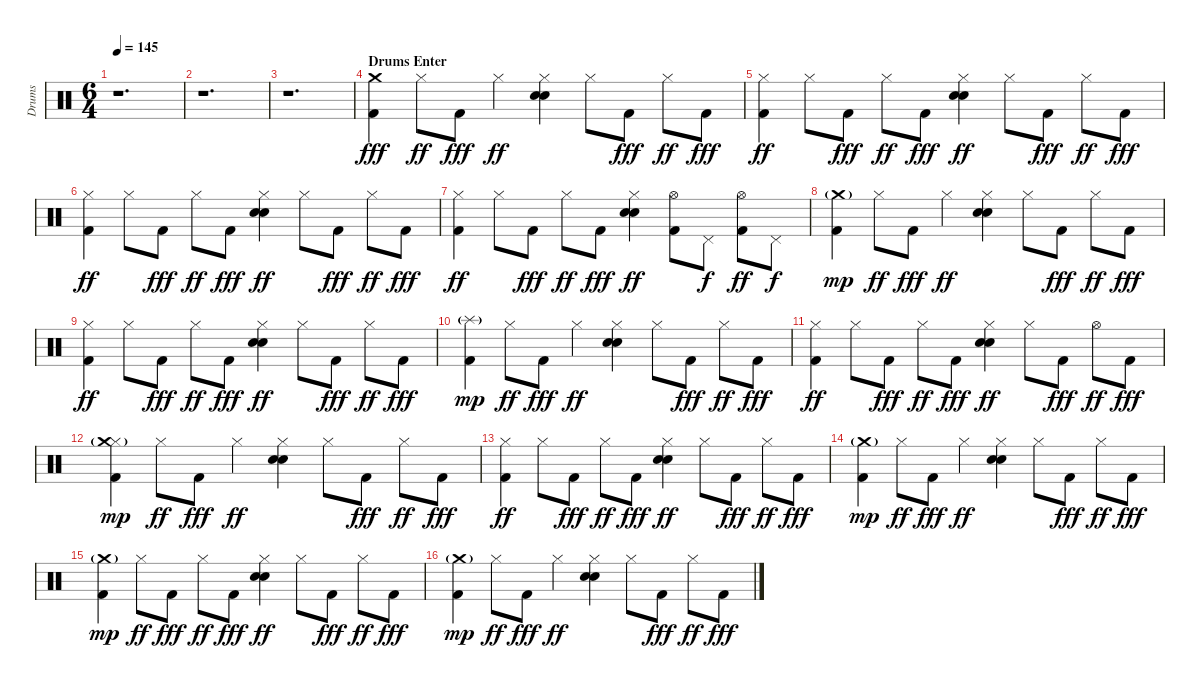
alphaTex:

\track ("Drums" "Drums") {instrument percussion}
\staff {score}
\articulation defaults
\ts (6 4)
\tempo 145
\clef neutral
\ks c
r.1{d dy ff} |
r.1{d} |
r.1{d} |
\section ("" "Drums Enter")
("Kick (hit) 2" "Crash medium (hit)").4{dy fff} "Hi-Hat (closed)".8{dy ff} "Kick (hit) 2".8{dy fff} "Hi-Hat (closed)".4{dy ff} ("Snare (hit) 2" "Snare (hit) 2" "Hi-Hat (closed)").4 "Hi-Hat (closed)".8 "Kick (hit) 2".8{dy fff} "Hi-Hat (closed)".8{dy ff} "Kick (hit) 2".8{dy fff} |
("Kick (hit) 2" "Hi-Hat (closed)").4{dy ff} "Hi-Hat (closed)".8 "Kick (hit) 2".8{dy fff} "Hi-Hat (closed)".8{dy ff} "Kick (hit) 2".8{dy fff} ("Snare (hit) 2" "Snare (hit) 2" "Hi-Hat (closed)").4{dy ff} "Hi-Hat (closed)".8 "Kick (hit) 2".8{dy fff} "Hi-Hat (closed)".8{dy ff} "Kick (hit) 2".8{dy fff} |
("Kick (hit) 2" "Hi-Hat (closed)").4{dy ff} "Hi-Hat (closed)".8 "Kick (hit) 2".8{dy fff} "Hi-Hat (closed)".8{dy ff} "Kick (hit) 2".8{dy fff} ("Snare (hit) 2" "Snare (hit) 2" "Hi-Hat (closed)").4{dy ff} "Hi-Hat (closed)".8 "Kick (hit) 2".8{dy fff} "Hi-Hat (closed)".8{dy ff} "Kick (hit) 2".8{dy fff} |
("Kick (hit) 2" "Hi-Hat (closed)").4{dy ff} "Hi-Hat (closed)".8 "Kick (hit) 2".8{dy fff} "Hi-Hat (closed)".8{dy ff} "Kick (hit) 2".8{dy fff} ("Snare (hit) 2" "Snare (hit) 2" "Hi-Hat (closed)").4{dy ff} ("Kick (hit) 2" "Hi-Hat (open)").8 "Pedal Hi-Hat (hit)".8{dy f} ("Kick (hit) 2" "Hi-Hat (open)").8{dy ff} "Pedal Hi-Hat (hit)".8{dy f} |
("Kick (hit) 2" "Crash medium (hit)"{g}).4{dy mp} "Hi-Hat (closed)".8{dy ff} "Kick (hit) 2".8{dy fff} "Hi-Hat (closed)".4{dy ff} ("Snare (hit) 2" "Snare (hit) 2" "Hi-Hat (closed)").4 "Hi-Hat (closed)".8 "Kick (hit) 2".8{dy fff} "Hi-Hat (closed)".8{dy ff} "Kick (hit) 2".8{dy fff} |
("Kick (hit) 2" "Hi-Hat (closed)").4{dy ff} "Hi-Hat (closed)".8 "Kick (hit) 2".8{dy fff} "Hi-Hat (closed)".8{dy ff} "Kick (hit) 2".8{dy fff} ("Snare (hit) 2" "Snare (hit) 2" "Hi-Hat (closed)").4{dy ff} "Hi-Hat (closed)".8 "Kick (hit) 2".8{dy fff} "Hi-Hat (closed)".8{dy ff} "Kick (hit) 2".8{dy fff} |
("Kick (hit) 2" "Splash (hit)"{g}).4{dy mp} "Hi-Hat (closed)".8{dy ff} "Kick (hit) 2".8{dy fff} "Hi-Hat (closed)".4{dy ff} ("Snare (hit) 2" "Snare (hit) 2" "Hi-Hat (closed)").4 "Hi-Hat (closed)".8 "Kick (hit) 2".8{dy fff} "Hi-Hat (closed)".8{dy ff} "Kick (hit) 2".8{dy fff} |
("Kick (hit) 2" "Hi-Hat (closed)").4{dy ff} "Hi-Hat (closed)".8 "Kick (hit) 2".8{dy fff} "Hi-Hat (closed)".8{dy ff} "Kick (hit) 2".8{dy fff} ("Snare (hit) 2" "Snare (hit) 2" "Hi-Hat (closed)").4{dy ff} "Hi-Hat (closed)".8 "Kick (hit) 2".8{dy fff} "Hi-Hat (open)".8{dy ff} "Kick (hit) 2".8{dy fff} |
("Kick (hit) 2" "Hi-Hat (closed)" "Crash medium (hit)"{g}).4{dy mp} "Hi-Hat (closed)".8{dy ff} "Kick (hit) 2".8{dy fff} "Hi-Hat (closed)".4{dy ff} ("Snare (hit) 2" "Snare (hit) 2" "Hi-Hat (closed)").4 "Hi-Hat (closed)".8 "Kick (hit) 2".8{dy fff} "Hi-Hat (closed)".8{dy ff} "Kick (hit) 2".8{dy fff} |
("Kick (hit) 2" "Hi-Hat (closed)").4{dy ff} "Hi-Hat (closed)".8 "Kick (hit) 2".8{dy fff} "Hi-Hat (closed)".8{dy ff} "Kick (hit) 2".8{dy fff} ("Snare (hit) 2" "Snare (hit) 2" "Hi-Hat (closed)").4{dy ff} "Hi-Hat (closed)".8 "Kick (hit) 2".8{dy fff} "Hi-Hat (closed)".8{dy ff} "Kick (hit) 2".8{dy fff} |
("Kick (hit) 2" "Crash medium (hit)"{g}).4{dy mp} "Hi-Hat (closed)".8{dy ff} "Kick (hit) 2".8{dy fff} "Hi-Hat (closed)".4{dy ff} ("Snare (hit) 2" "Snare (hit) 2" "Hi-Hat (closed)").4 "Hi-Hat (closed)".8 "Kick (hit) 2".8{dy fff} "Hi-Hat (closed)".8{dy ff} "Kick (hit) 2".8{dy fff} |
("Kick (hit) 2" "Crash medium (hit)"{g}).4{dy mp} "Hi-Hat (closed)".8{dy ff} "Kick (hit) 2".8{dy fff} "Hi-Hat (closed)".8{dy ff} "Kick (hit) 2".8{dy fff} ("Snare (hit) 2" "Snare (hit) 2" "Hi-Hat (closed)").4{dy ff} "Hi-Hat (closed)".8 "Kick (hit) 2".8{dy fff} "Hi-Hat (closed)".8{dy ff} "Kick (hit) 2".8{dy fff} |
("Kick (hit) 2" "Crash medium (hit)"{g}).4{dy mp} "Hi-Hat (closed)".8{dy ff} "Kick (hit) 2".8{dy fff} "Hi-Hat (closed)".4{dy ff} ("Snare (hit) 2" "Snare (hit) 2" "Hi-Hat (closed)").4 "Hi-Hat (closed)".8 "Kick (hit) 2".8{dy fff} "Hi-Hat (closed)".8{dy ff} "Kick (hit) 2".8{dy fff}
